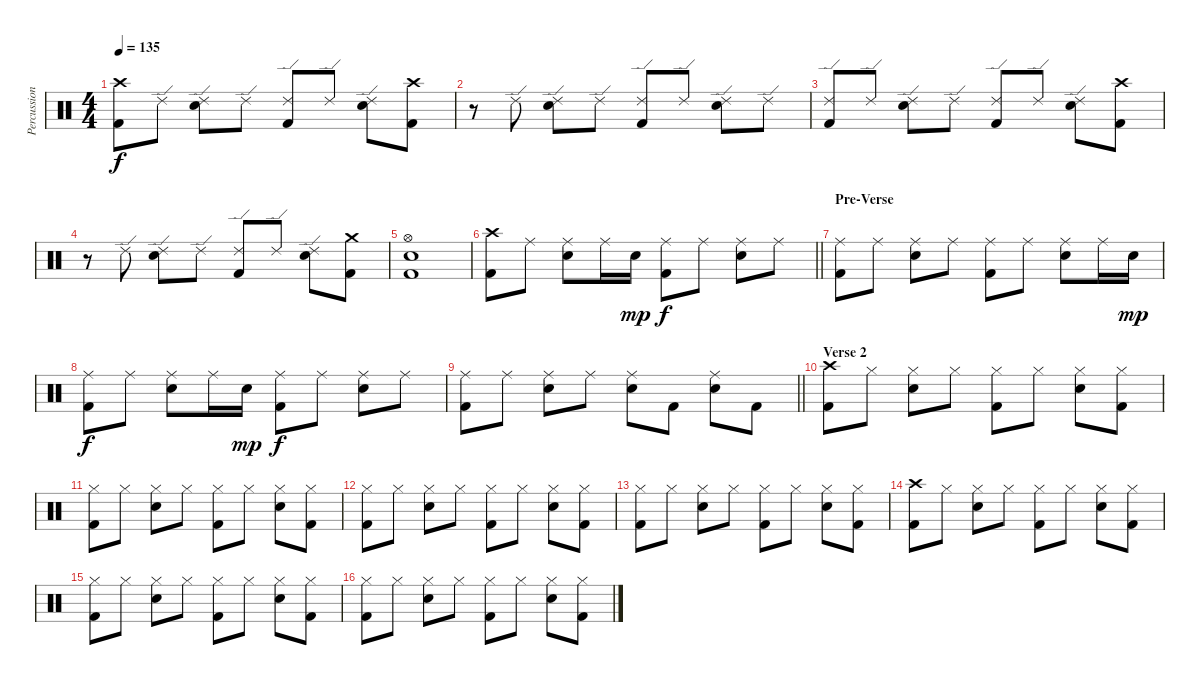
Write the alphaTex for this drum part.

\track ("Percussion" "Percussion") {instrument percussion}
\staff {score}
\articulation defaults
\ts (4 4)
\tempo 135
\clef neutral
\ks c
("Crash high (hit)" "Kick (hit) 2").8{dy f} "Ride (edge) 2".8 ("Ride (edge) 2" "Snare (hit) 2").8 "Ride (edge) 2".8 ("Ride (edge) 2" "Kick (hit) 2").8 "Ride (edge) 2".8 ("Ride (edge) 2" "Snare (hit) 2").8 ("Crash high (hit)" "Kick (hit) 2").8 |
r.8 "Ride (edge) 2".8 ("Ride (edge) 2" "Snare (hit) 2").8 "Ride (edge) 2".8 ("Ride (edge) 2" "Kick (hit) 2").8 "Ride (edge) 2".8 ("Ride (edge) 2" "Snare (hit) 2").8 "Ride (edge) 2".8 |
("Ride (edge) 2" "Kick (hit) 2").8 "Ride (edge) 2".8 ("Ride (edge) 2" "Snare (hit) 2").8 "Ride (edge) 2".8 ("Ride (edge) 2" "Kick (hit) 2").8 "Ride (edge) 2".8 ("Ride (edge) 2" "Snare (hit) 2").8 ("Crash high (hit)" "Kick (hit) 2").8 |
r.8 "Ride (edge) 2".8 ("Ride (edge) 2" "Snare (hit) 2").8 "Ride (edge) 2".8 ("Ride (edge) 2" "Kick (hit) 2").8 "Ride (edge) 2".8 ("Ride (edge) 2" "Snare (hit) 2").8 ("Crash medium (hit)" "Kick (hit) 2").8 |
("Hi-Hat (open)" "Snare (hit) 2" "Kick (hit) 2").1 |
\barLineRight lightlight
("Crash high (hit)" "Kick (hit) 2").8 "Ride (middle)".8 ("Ride (middle)" "Snare (hit) 2").8 "Ride (middle)".16 "Snare (hit) 2".16{dy mp} ("Ride (middle)" "Kick (hit) 2").8{dy f} "Ride (middle)".8 ("Ride (middle)" "Snare (hit) 2").8 "Ride (middle)".8 |
\section ("" "Pre-Verse")
("Ride (middle)" "Kick (hit) 2").8 "Ride (middle)".8 ("Ride (middle)" "Snare (hit) 2").8 "Ride (middle)".8 ("Ride (middle)" "Kick (hit) 2").8 "Ride (middle)".8 ("Ride (middle)" "Snare (hit) 2").8 "Ride (middle)".16 "Snare (hit) 2".16{dy mp} |
("Ride (middle)" "Kick (hit) 2").8{dy f} "Ride (middle)".8 ("Ride (middle)" "Snare (hit) 2").8 "Ride (middle)".16 "Snare (hit) 2".16{dy mp} ("Ride (middle)" "Kick (hit) 2").8{dy f} "Ride (middle)".8 ("Ride (middle)" "Snare (hit) 2").8 "Ride (middle)".8 |
\barLineRight lightlight
("Ride (middle)" "Kick (hit) 2").8 "Ride (middle)".8 ("Ride (middle)" "Snare (hit) 2").8 "Ride (middle)".8 ("Ride (middle)" "Snare (hit) 2").8 "Kick (hit) 2".8 ("Ride (middle)" "Snare (hit) 2").8 "Kick (hit) 2".8 |
\section ("" "Verse 2")
("Crash high (hit)" "Kick (hit) 2").8 "Hi-Hat (closed)".8 ("Hi-Hat (closed)" "Snare (hit) 2").8 "Hi-Hat (closed)".8 ("Hi-Hat (closed)" "Kick (hit) 2").8 "Hi-Hat (closed)".8 ("Hi-Hat (closed)" "Snare (hit) 2").8 ("Hi-Hat (closed)" "Kick (hit) 2").8 |
("Hi-Hat (closed)" "Kick (hit) 2").8 "Hi-Hat (closed)".8 ("Hi-Hat (closed)" "Snare (hit) 2").8 "Hi-Hat (closed)".8 ("Hi-Hat (closed)" "Kick (hit) 2").8 "Hi-Hat (closed)".8 ("Hi-Hat (closed)" "Snare (hit) 2").8 ("Hi-Hat (closed)" "Kick (hit) 2").8 |
("Hi-Hat (closed)" "Kick (hit) 2").8 "Hi-Hat (closed)".8 ("Hi-Hat (closed)" "Snare (hit) 2").8 "Hi-Hat (closed)".8 ("Hi-Hat (closed)" "Kick (hit) 2").8 "Hi-Hat (closed)".8 ("Hi-Hat (closed)" "Snare (hit) 2").8 ("Hi-Hat (closed)" "Kick (hit) 2").8 |
("Hi-Hat (closed)" "Kick (hit) 2").8 "Hi-Hat (closed)".8 ("Hi-Hat (closed)" "Snare (hit) 2").8 "Hi-Hat (closed)".8 ("Hi-Hat (closed)" "Kick (hit) 2").8 "Hi-Hat (closed)".8 ("Hi-Hat (closed)" "Snare (hit) 2").8 ("Hi-Hat (closed)" "Kick (hit) 2").8 |
("Crash high (hit)" "Kick (hit) 2").8 "Hi-Hat (closed)".8 ("Hi-Hat (closed)" "Snare (hit) 2").8 "Hi-Hat (closed)".8 ("Hi-Hat (closed)" "Kick (hit) 2").8 "Hi-Hat (closed)".8 ("Hi-Hat (closed)" "Snare (hit) 2").8 ("Hi-Hat (closed)" "Kick (hit) 2").8 |
("Hi-Hat (closed)" "Kick (hit) 2").8 "Hi-Hat (closed)".8 ("Hi-Hat (closed)" "Snare (hit) 2").8 "Hi-Hat (closed)".8 ("Hi-Hat (closed)" "Kick (hit) 2").8 "Hi-Hat (closed)".8 ("Hi-Hat (closed)" "Snare (hit) 2").8 ("Hi-Hat (closed)" "Kick (hit) 2").8 |
("Hi-Hat (closed)" "Kick (hit) 2").8 "Hi-Hat (closed)".8 ("Hi-Hat (closed)" "Snare (hit) 2").8 "Hi-Hat (closed)".8 ("Hi-Hat (closed)" "Kick (hit) 2").8 "Hi-Hat (closed)".8 ("Hi-Hat (closed)" "Snare (hit) 2").8 ("Hi-Hat (closed)" "Kick (hit) 2").8
